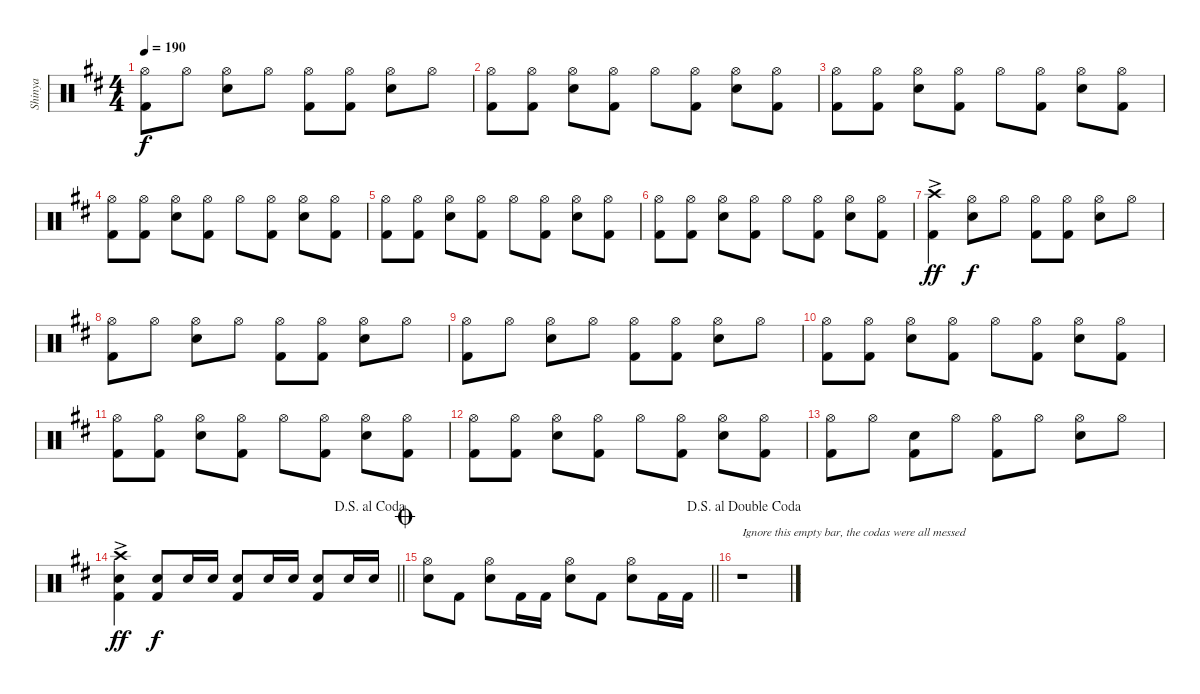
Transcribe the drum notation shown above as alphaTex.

\track ("Shinya" "Shinya") {instrument percussion}
\staff {score}
\articulation defaults
\ts (4 4)
\tempo 190
\clef neutral
\ks d
("Hi-Hat (open)" "Kick (hit) 2").8{dy f} "Hi-Hat (open)".8 ("Hi-Hat (open)" "Snare (hit) 2").8 "Hi-Hat (open)".8 ("Hi-Hat (open)" "Kick (hit) 2").8 ("Hi-Hat (open)" "Kick (hit) 2").8 ("Hi-Hat (open)" "Snare (hit) 2").8 "Hi-Hat (open)".8 |
("Hi-Hat (open)" "Kick (hit) 2").8 ("Hi-Hat (open)" "Kick (hit) 2").8 ("Hi-Hat (open)" "Snare (hit) 2").8 ("Hi-Hat (open)" "Kick (hit) 2").8 "Hi-Hat (open)".8 ("Hi-Hat (open)" "Kick (hit) 2").8 ("Hi-Hat (open)" "Snare (hit) 2").8 ("Hi-Hat (open)" "Kick (hit) 2").8 |
("Hi-Hat (open)" "Kick (hit) 2").8 ("Hi-Hat (open)" "Kick (hit) 2").8 ("Hi-Hat (open)" "Snare (hit) 2").8 ("Hi-Hat (open)" "Kick (hit) 2").8 "Hi-Hat (open)".8 ("Hi-Hat (open)" "Kick (hit) 2").8 ("Hi-Hat (open)" "Snare (hit) 2").8 ("Hi-Hat (open)" "Kick (hit) 2").8 |
("Hi-Hat (open)" "Kick (hit) 2").8 ("Hi-Hat (open)" "Kick (hit) 2").8 ("Hi-Hat (open)" "Snare (hit) 2").8 ("Hi-Hat (open)" "Kick (hit) 2").8 "Hi-Hat (open)".8 ("Hi-Hat (open)" "Kick (hit) 2").8 ("Hi-Hat (open)" "Snare (hit) 2").8 ("Hi-Hat (open)" "Kick (hit) 2").8 |
("Hi-Hat (open)" "Kick (hit) 2").8 ("Hi-Hat (open)" "Kick (hit) 2").8 ("Hi-Hat (open)" "Snare (hit) 2").8 ("Hi-Hat (open)" "Kick (hit) 2").8 "Hi-Hat (open)".8 ("Hi-Hat (open)" "Kick (hit) 2").8 ("Hi-Hat (open)" "Snare (hit) 2").8 ("Hi-Hat (open)" "Kick (hit) 2").8 |
("Hi-Hat (open)" "Kick (hit) 2").8 ("Hi-Hat (open)" "Kick (hit) 2").8 ("Hi-Hat (open)" "Snare (hit) 2").8 ("Hi-Hat (open)" "Kick (hit) 2").8 "Hi-Hat (open)".8 ("Hi-Hat (open)" "Kick (hit) 2").8 ("Hi-Hat (open)" "Snare (hit) 2").8 ("Hi-Hat (open)" "Kick (hit) 2").8 |
("Crash high (hit)"{ac} "Kick (hit) 2").4{dy ff} ("Hi-Hat (open)" "Snare (hit) 2").8{dy f} "Hi-Hat (open)".8 ("Hi-Hat (open)" "Kick (hit) 2").8 ("Hi-Hat (open)" "Kick (hit) 2").8 ("Hi-Hat (open)" "Snare (hit) 2").8 "Hi-Hat (open)".8 |
("Hi-Hat (open)" "Kick (hit) 2").8 "Hi-Hat (open)".8 ("Hi-Hat (open)" "Snare (hit) 2").8 "Hi-Hat (open)".8 ("Hi-Hat (open)" "Kick (hit) 2").8 ("Hi-Hat (open)" "Kick (hit) 2").8 ("Hi-Hat (open)" "Snare (hit) 2").8 "Hi-Hat (open)".8 |
("Hi-Hat (open)" "Kick (hit) 2").8 "Hi-Hat (open)".8 ("Hi-Hat (open)" "Snare (hit) 2").8 "Hi-Hat (open)".8 ("Hi-Hat (open)" "Kick (hit) 2").8 ("Hi-Hat (open)" "Kick (hit) 2").8 ("Hi-Hat (open)" "Snare (hit) 2").8 "Hi-Hat (open)".8 |
("Hi-Hat (open)" "Kick (hit) 2").8 ("Hi-Hat (open)" "Kick (hit) 2").8 ("Hi-Hat (open)" "Snare (hit) 2").8 ("Hi-Hat (open)" "Kick (hit) 2").8 "Hi-Hat (open)".8 ("Hi-Hat (open)" "Kick (hit) 2").8 ("Hi-Hat (open)" "Snare (hit) 2").8 ("Hi-Hat (open)" "Kick (hit) 2").8 |
("Hi-Hat (open)" "Kick (hit) 2").8 ("Hi-Hat (open)" "Kick (hit) 2").8 ("Hi-Hat (open)" "Snare (hit) 2").8 ("Hi-Hat (open)" "Kick (hit) 2").8 "Hi-Hat (open)".8 ("Hi-Hat (open)" "Kick (hit) 2").8 ("Hi-Hat (open)" "Snare (hit) 2").8 ("Hi-Hat (open)" "Kick (hit) 2").8 |
("Hi-Hat (open)" "Kick (hit) 2").8 ("Hi-Hat (open)" "Kick (hit) 2").8 ("Hi-Hat (open)" "Snare (hit) 2").8 ("Hi-Hat (open)" "Kick (hit) 2").8 "Hi-Hat (open)".8 ("Hi-Hat (open)" "Kick (hit) 2").8 ("Hi-Hat (open)" "Snare (hit) 2").8 ("Hi-Hat (open)" "Kick (hit) 2").8 |
("Hi-Hat (open)" "Kick (hit) 2").8 "Hi-Hat (open)".8 ("Snare (hit) 2" "Kick (hit) 2").8 "Hi-Hat (open)".8 ("Hi-Hat (open)" "Kick (hit) 2").8 "Hi-Hat (open)".8 ("Hi-Hat (open)" "Snare (hit) 2").8 "Hi-Hat (open)".8 |
\jump dalsegnoalcoda
\barLineRight lightlight
("Crash high (hit)"{ac} "Snare (hit) 2" "Kick (hit) 2").4{dy ff} ("Snare (hit) 2" "Kick (hit) 2").8{dy f} "Snare (hit) 2".16 "Snare (hit) 2".16 ("Snare (hit) 2" "Kick (hit) 2").8 "Snare (hit) 2".16 "Snare (hit) 2".16 ("Snare (hit) 2" "Kick (hit) 2").8 "Snare (hit) 2".16 "Snare (hit) 2".16 |
\jump coda
\barLineRight lightlight
("Hi-Hat (open)" "Snare (hit) 2").8 "Kick (hit) 2".8 ("Hi-Hat (open)" "Snare (hit) 2").8 "Kick (hit) 2".16 "Kick (hit) 2".16 ("Hi-Hat (open)" "Snare (hit) 2").8 "Kick (hit) 2".8 ("Hi-Hat (open)" "Snare (hit) 2").8 "Kick (hit) 2".16 "Kick (hit) 2".16 |
\jump dalsegnoaldoublecoda
r.1{txt "Ignore this empty bar, the codas were all messed "}
